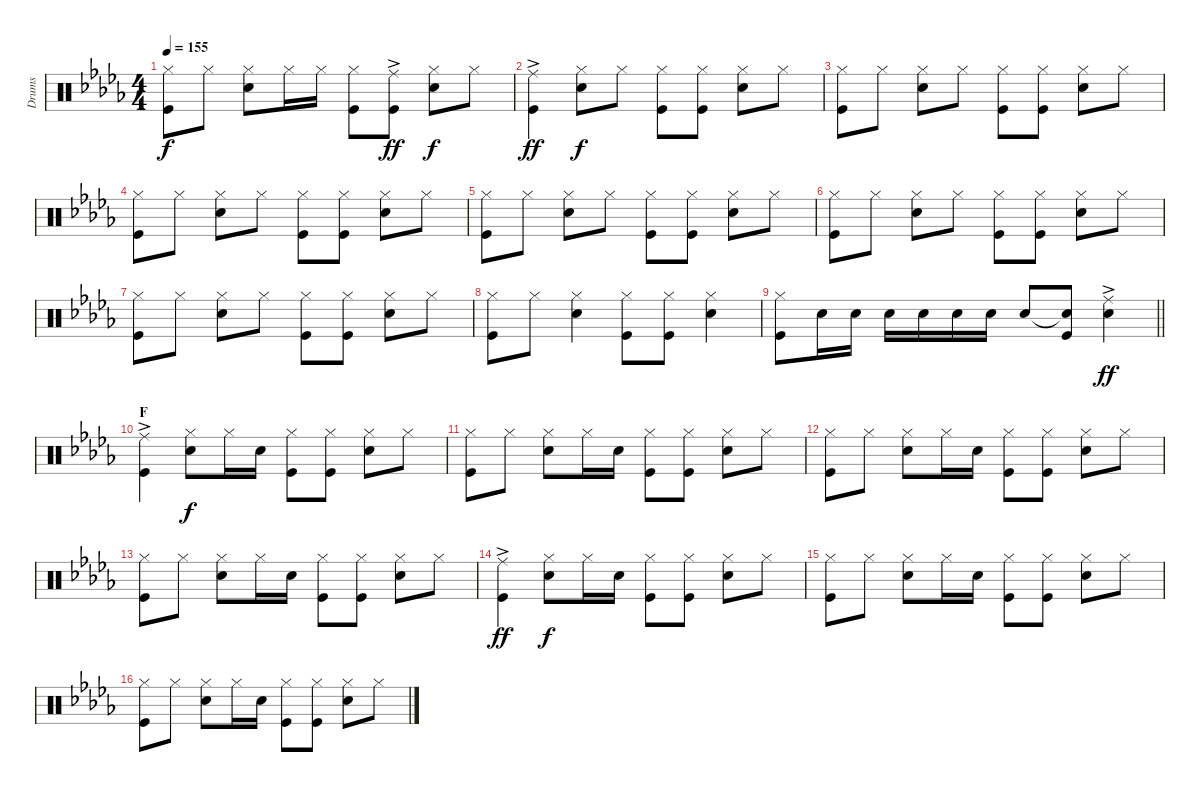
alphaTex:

\track ("Drums" "Drums") {instrument percussion}
\staff {score}
\articulation defaults
\ts (4 4)
\tempo 155
\clef neutral
\ks db
("Hi-Hat (closed)" "Kick (hit)").8{dy f} "Hi-Hat (closed)".8 ("Hi-Hat (closed)" "Snare (hit) 2").8 "Hi-Hat (closed)".16 "Hi-Hat (closed)".16 ("Hi-Hat (closed)" "Kick (hit)").8 ("Ride (middle)"{ac} "Kick (hit)"{ac}).8{dy ff} ("Hi-Hat (closed)" "Snare (hit) 2").8{dy f} "Hi-Hat (closed)".8 |
("Ride (middle)"{ac} "Kick (hit)"{ac}).4{dy ff} ("Hi-Hat (closed)" "Snare (hit) 2").8{dy f} "Hi-Hat (closed)".8 ("Hi-Hat (closed)" "Kick (hit)").8 ("Hi-Hat (closed)" "Kick (hit)").8 ("Hi-Hat (closed)" "Snare (hit) 2").8 "Hi-Hat (closed)".8 |
("Hi-Hat (closed)" "Kick (hit)").8 "Hi-Hat (closed)".8 ("Hi-Hat (closed)" "Snare (hit) 2").8 "Hi-Hat (closed)".8 ("Hi-Hat (closed)" "Kick (hit)").8 ("Hi-Hat (closed)" "Kick (hit)").8 ("Hi-Hat (closed)" "Snare (hit) 2").8 "Hi-Hat (closed)".8 |
("Hi-Hat (closed)" "Kick (hit)").8 "Hi-Hat (closed)".8 ("Hi-Hat (closed)" "Snare (hit) 2").8 "Hi-Hat (closed)".8 ("Hi-Hat (closed)" "Kick (hit)").8 ("Hi-Hat (closed)" "Kick (hit)").8 ("Hi-Hat (closed)" "Snare (hit) 2").8 "Hi-Hat (closed)".8 |
("Hi-Hat (closed)" "Kick (hit)").8 "Hi-Hat (closed)".8 ("Hi-Hat (closed)" "Snare (hit) 2").8 "Hi-Hat (closed)".8 ("Hi-Hat (closed)" "Kick (hit)").8 ("Hi-Hat (closed)" "Kick (hit)").8 ("Hi-Hat (closed)" "Snare (hit) 2").8 "Hi-Hat (closed)".8 |
("Hi-Hat (closed)" "Kick (hit)").8 "Hi-Hat (closed)".8 ("Hi-Hat (closed)" "Snare (hit) 2").8 "Hi-Hat (closed)".8 ("Hi-Hat (closed)" "Kick (hit)").8 ("Hi-Hat (closed)" "Kick (hit)").8 ("Hi-Hat (closed)" "Snare (hit) 2").8 "Hi-Hat (closed)".8 |
("Hi-Hat (closed)" "Kick (hit)").8 "Hi-Hat (closed)".8 ("Hi-Hat (closed)" "Snare (hit) 2").8 "Hi-Hat (closed)".8 ("Hi-Hat (closed)" "Kick (hit)").8 ("Hi-Hat (closed)" "Kick (hit)").8 ("Hi-Hat (closed)" "Snare (hit) 2").8 "Hi-Hat (closed)".8 |
("Hi-Hat (closed)" "Kick (hit)").8 "Hi-Hat (closed)".8 ("Hi-Hat (closed)" "Snare (hit) 2").4 ("Hi-Hat (closed)" "Kick (hit)").8 ("Hi-Hat (closed)" "Kick (hit)").8 ("Hi-Hat (closed)" "Snare (hit) 2").4 |
\barLineRight lightlight
("Hi-Hat (closed)" "Kick (hit)").8 "Snare (hit) 2".16 "Snare (hit) 2".16 "Snare (hit) 2".16 "Snare (hit) 2".16 "Snare (hit) 2".16 "Snare (hit) 2".16 "Snare (hit) 2".8 ("Snare (hit) 2"{t} "Kick (hit)").8 ("Ride (middle)"{ac} "Snare (hit) 2"{ac}).4{dy ff} |
\section ("" "F")
("Ride (middle)"{ac} "Kick (hit)"{ac}).4 ("Hi-Hat (closed)" "Snare (hit) 2").8{dy f} "Hi-Hat (closed)".16 "Snare (hit) 2".16 ("Hi-Hat (closed)" "Kick (hit)").8 ("Hi-Hat (closed)" "Kick (hit)").8 ("Hi-Hat (closed)" "Snare (hit) 2").8 "Hi-Hat (closed)".8 |
("Hi-Hat (closed)" "Kick (hit)").8 "Hi-Hat (closed)".8 ("Hi-Hat (closed)" "Snare (hit) 2").8 "Hi-Hat (closed)".16 "Snare (hit) 2".16 ("Hi-Hat (closed)" "Kick (hit)").8 ("Hi-Hat (closed)" "Kick (hit)").8 ("Hi-Hat (closed)" "Snare (hit) 2").8 "Hi-Hat (closed)".8 |
("Hi-Hat (closed)" "Kick (hit)").8 "Hi-Hat (closed)".8 ("Hi-Hat (closed)" "Snare (hit) 2").8 "Hi-Hat (closed)".16 "Snare (hit) 2".16 ("Hi-Hat (closed)" "Kick (hit)").8 ("Hi-Hat (closed)" "Kick (hit)").8 ("Hi-Hat (closed)" "Snare (hit) 2").8 "Hi-Hat (closed)".8 |
("Hi-Hat (closed)" "Kick (hit)").8 "Hi-Hat (closed)".8 ("Hi-Hat (closed)" "Snare (hit) 2").8 "Hi-Hat (closed)".16 "Snare (hit) 2".16 ("Hi-Hat (closed)" "Kick (hit)").8 ("Hi-Hat (closed)" "Kick (hit)").8 ("Hi-Hat (closed)" "Snare (hit) 2").8 "Hi-Hat (closed)".8 |
("Ride (middle)"{ac} "Kick (hit)"{ac}).4{dy ff} ("Hi-Hat (closed)" "Snare (hit) 2").8{dy f} "Hi-Hat (closed)".16 "Snare (hit) 2".16 ("Hi-Hat (closed)" "Kick (hit)").8 ("Hi-Hat (closed)" "Kick (hit)").8 ("Hi-Hat (closed)" "Snare (hit) 2").8 "Hi-Hat (closed)".8 |
("Hi-Hat (closed)" "Kick (hit)").8 "Hi-Hat (closed)".8 ("Hi-Hat (closed)" "Snare (hit) 2").8 "Hi-Hat (closed)".16 "Snare (hit) 2".16 ("Hi-Hat (closed)" "Kick (hit)").8 ("Hi-Hat (closed)" "Kick (hit)").8 ("Hi-Hat (closed)" "Snare (hit) 2").8 "Hi-Hat (closed)".8 |
("Hi-Hat (closed)" "Kick (hit)").8 "Hi-Hat (closed)".8 ("Hi-Hat (closed)" "Snare (hit) 2").8 "Hi-Hat (closed)".16 "Snare (hit) 2".16 ("Hi-Hat (closed)" "Kick (hit)").8 ("Hi-Hat (closed)" "Kick (hit)").8 ("Hi-Hat (closed)" "Snare (hit) 2").8 "Hi-Hat (closed)".8
